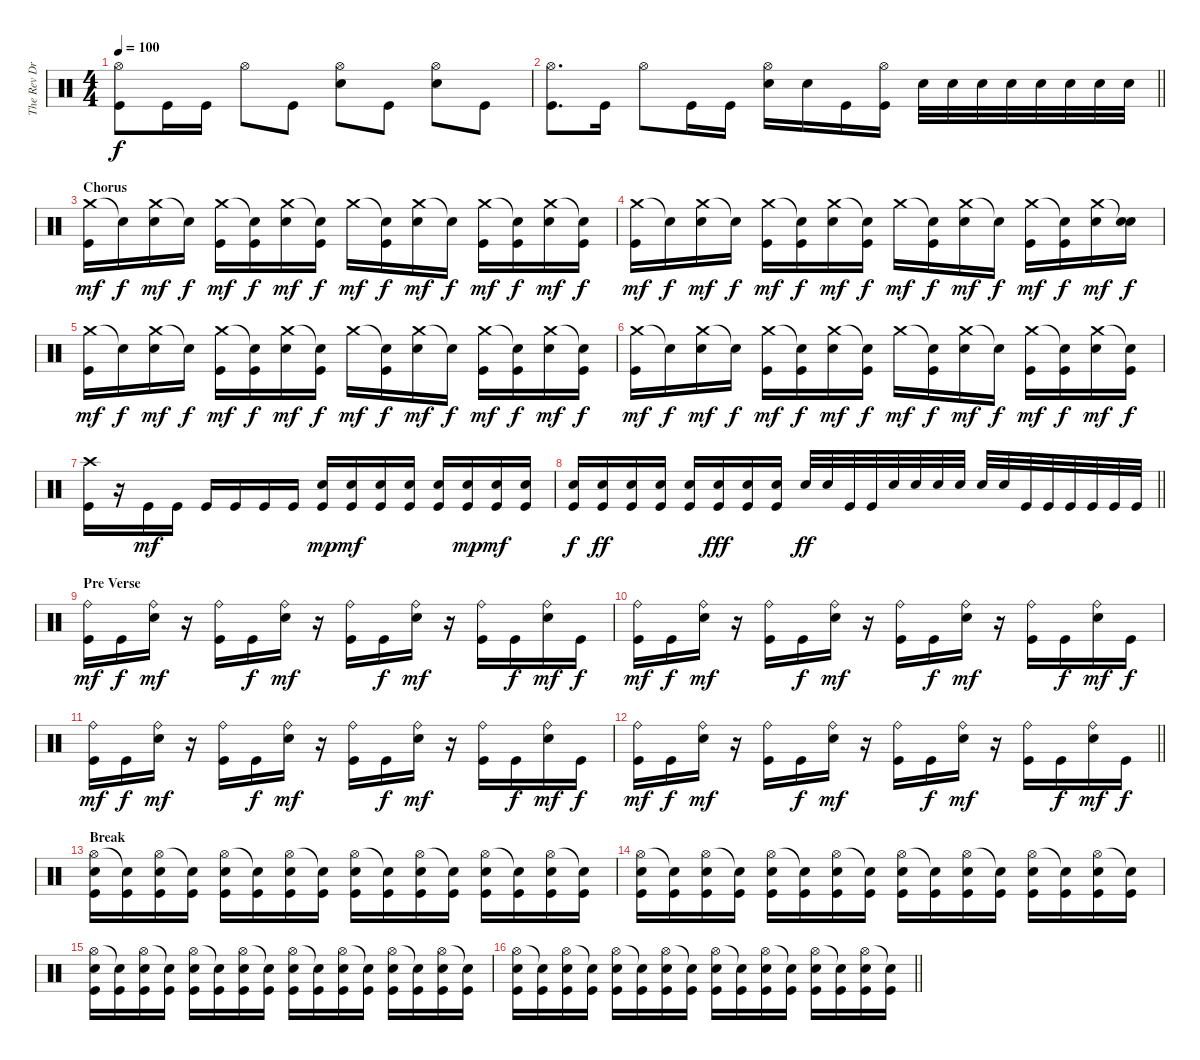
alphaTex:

\track ("The Rev Drums" "The Rev Dr") {instrument percussion}
\staff {score}
\articulation defaults
\ts (4 4)
\tempo 100
\clef neutral
\ks c
("Hi-Hat (open)" "Kick (hit)").8{dy f} "Kick (hit)".16 "Kick (hit)".16 "Hi-Hat (open)".8 "Kick (hit)".8 ("Hi-Hat (open)" "Electric Snare (hit)").8 "Kick (hit)".8 ("Hi-Hat (open)" "Electric Snare (hit)").8 "Kick (hit)".8 |
\barLineRight lightlight
("Hi-Hat (open)" "Kick (hit)").8{d} "Kick (hit)".16 "Hi-Hat (open)".8 "Kick (hit)".16 "Kick (hit)".16 ("Hi-Hat (open)" "Electric Snare (hit)").16 "Electric Snare (hit)".16 "Kick (hit)".16 ("Hi-Hat (open)" "Kick (hit)").16 "Electric Snare (hit)".32 "Electric Snare (hit)".32 "Electric Snare (hit)".32 "Electric Snare (hit)".32 "Electric Snare (hit)".32 "Electric Snare (hit)".32 "Electric Snare (hit)".32 "Electric Snare (hit)".32 |
\section ("" "Chorus")
("Crash medium (hit)" "Kick (hit)").16{dy mf} "Snare (hit)"{t}.16{dy f} ("Crash medium (hit)" "Electric Snare (hit)").16{dy mf} "Snare (hit)"{t}.16{dy f} ("Crash medium (hit)" "Kick (hit)").16{dy mf} ("Snare (hit)"{t} "Kick (hit)").16{dy f} ("Crash medium (hit)" "Electric Snare (hit)").16{dy mf} ("Snare (hit)"{t} "Kick (hit)").16{dy f} "Crash medium (hit)".16{dy mf} ("Snare (hit)"{t} "Kick (hit)").16{dy f} ("Crash medium (hit)" "Electric Snare (hit)").16{dy mf} "Snare (hit)"{t}.16{dy f} ("Crash medium (hit)" "Kick (hit)").16{dy mf} ("Snare (hit)"{t} "Kick (hit)").16{dy f} ("Crash medium (hit)" "Electric Snare (hit)").16{dy mf} ("Snare (hit)"{t} "Kick (hit)").16{dy f} |
("Crash medium (hit)" "Kick (hit)").16{dy mf} "Snare (hit)"{t}.16{dy f} ("Crash medium (hit)" "Electric Snare (hit)").16{dy mf} "Snare (hit)"{t}.16{dy f} ("Crash medium (hit)" "Kick (hit)").16{dy mf} ("Snare (hit)"{t} "Kick (hit)").16{dy f} ("Crash medium (hit)" "Electric Snare (hit)").16{dy mf} ("Snare (hit)"{t} "Kick (hit)").16{dy f} "Crash medium (hit)".16{dy mf} ("Snare (hit)"{t} "Kick (hit)").16{dy f} ("Crash medium (hit)" "Electric Snare (hit)").16{dy mf} "Snare (hit)"{t}.16{dy f} ("Crash medium (hit)" "Kick (hit)").16{dy mf} ("Snare (hit)"{t} "Kick (hit)").16{dy f} ("Crash medium (hit)" "Electric Snare (hit)").16{dy mf} ("Snare (hit)"{t} "Electric Snare (hit)").16{dy f} |
("Crash medium (hit)" "Kick (hit)").16{dy mf} "Snare (hit)"{t}.16{dy f} ("Crash medium (hit)" "Electric Snare (hit)").16{dy mf} "Snare (hit)"{t}.16{dy f} ("Crash medium (hit)" "Kick (hit)").16{dy mf} ("Snare (hit)"{t} "Kick (hit)").16{dy f} ("Crash medium (hit)" "Electric Snare (hit)").16{dy mf} ("Snare (hit)"{t} "Kick (hit)").16{dy f} "Crash medium (hit)".16{dy mf} ("Snare (hit)"{t} "Kick (hit)").16{dy f} ("Crash medium (hit)" "Electric Snare (hit)").16{dy mf} "Snare (hit)"{t}.16{dy f} ("Crash medium (hit)" "Kick (hit)").16{dy mf} ("Snare (hit)"{t} "Kick (hit)").16{dy f} ("Crash medium (hit)" "Electric Snare (hit)").16{dy mf} ("Snare (hit)"{t} "Kick (hit)").16{dy f} |
("Crash medium (hit)" "Kick (hit)").16{dy mf} "Snare (hit)"{t}.16{dy f} ("Crash medium (hit)" "Electric Snare (hit)").16{dy mf} "Snare (hit)"{t}.16{dy f} ("Crash medium (hit)" "Kick (hit)").16{dy mf} ("Snare (hit)"{t} "Kick (hit)").16{dy f} ("Crash medium (hit)" "Electric Snare (hit)").16{dy mf} ("Snare (hit)"{t} "Kick (hit)").16{dy f} "Crash medium (hit)".16{dy mf} ("Snare (hit)"{t} "Kick (hit)").16{dy f} ("Crash medium (hit)" "Electric Snare (hit)").16{dy mf} "Snare (hit)"{t}.16{dy f} ("Crash medium (hit)" "Kick (hit)").16{dy mf} ("Snare (hit)"{t} "Kick (hit)").16{dy f} ("Crash medium (hit)" "Electric Snare (hit)").16{dy mf} ("Snare (hit)"{t} "Kick (hit)").16{dy f} |
("Crash high (hit)" "Kick (hit)").16 r.16 "Kick (hit)".16{dy mf} "Kick (hit)".16 "Kick (hit)".16 "Kick (hit)".16 "Kick (hit)".16 "Kick (hit)".16 ("Electric Snare (hit)" "Kick (hit)").16{dy mp} ("Electric Snare (hit)" "Kick (hit)").16{dy mf} ("Electric Snare (hit)" "Kick (hit)").16 ("Electric Snare (hit)" "Kick (hit)").16 ("Electric Snare (hit)" "Kick (hit)").16 ("Electric Snare (hit)" "Kick (hit)").16{dy mp} ("Electric Snare (hit)" "Kick (hit)").16{dy mf} ("Electric Snare (hit)" "Kick (hit)").16 |
\barLineRight lightlight
("Electric Snare (hit)" "Kick (hit)").16{dy f} ("Electric Snare (hit)" "Kick (hit)").16{dy ff} ("Electric Snare (hit)" "Kick (hit)").16 ("Electric Snare (hit)" "Kick (hit)").16 ("Electric Snare (hit)" "Kick (hit)").16 ("Electric Snare (hit)" "Kick (hit)").16{dy fff} ("Electric Snare (hit)" "Kick (hit)").16 ("Electric Snare (hit)" "Kick (hit)").16 "Electric Snare (hit)".32{dy ff} "Electric Snare (hit)".32 "Kick (hit)".32 "Kick (hit)".32 "Electric Snare (hit)".32 "Electric Snare (hit)".32 "Electric Snare (hit)".32 "Electric Snare (hit)".32 "Electric Snare (hit)".32 "Electric Snare (hit)".32 "Kick (hit)".32 "Kick (hit)".32 "Kick (hit)".32 "Kick (hit)".32 "Kick (hit)".32 "Kick (hit)".32 |
\section ("" "Pre Verse")
("Ride (bell)" "Kick (hit)").16{dy mf} "Kick (hit)".16{dy f} ("Ride (bell)" "Electric Snare (hit)").16{dy mf} r.16 ("Ride (bell)" "Kick (hit)").16 "Kick (hit)".16{dy f} ("Ride (bell)" "Electric Snare (hit)").16{dy mf} r.16 ("Ride (bell)" "Kick (hit)").16 "Kick (hit)".16{dy f} ("Ride (bell)" "Electric Snare (hit)").16{dy mf} r.16 ("Ride (bell)" "Kick (hit)").16 "Kick (hit)".16{dy f} ("Ride (bell)" "Electric Snare (hit)").16{dy mf} "Kick (hit)".16{dy f} |
("Ride (bell)" "Kick (hit)").16{dy mf} "Kick (hit)".16{dy f} ("Ride (bell)" "Electric Snare (hit)").16{dy mf} r.16 ("Ride (bell)" "Kick (hit)").16 "Kick (hit)".16{dy f} ("Ride (bell)" "Electric Snare (hit)").16{dy mf} r.16 ("Ride (bell)" "Kick (hit)").16 "Kick (hit)".16{dy f} ("Ride (bell)" "Electric Snare (hit)").16{dy mf} r.16 ("Ride (bell)" "Kick (hit)").16 "Kick (hit)".16{dy f} ("Ride (bell)" "Electric Snare (hit)").16{dy mf} "Kick (hit)".16{dy f} |
("Ride (bell)" "Kick (hit)").16{dy mf} "Kick (hit)".16{dy f} ("Ride (bell)" "Electric Snare (hit)").16{dy mf} r.16 ("Ride (bell)" "Kick (hit)").16 "Kick (hit)".16{dy f} ("Ride (bell)" "Electric Snare (hit)").16{dy mf} r.16 ("Ride (bell)" "Kick (hit)").16 "Kick (hit)".16{dy f} ("Ride (bell)" "Electric Snare (hit)").16{dy mf} r.16 ("Ride (bell)" "Kick (hit)").16 "Kick (hit)".16{dy f} ("Ride (bell)" "Electric Snare (hit)").16{dy mf} "Kick (hit)".16{dy f} |
\barLineRight lightlight
("Ride (bell)" "Kick (hit)").16{dy mf} "Kick (hit)".16{dy f} ("Ride (bell)" "Electric Snare (hit)").16{dy mf} r.16 ("Ride (bell)" "Kick (hit)").16 "Kick (hit)".16{dy f} ("Ride (bell)" "Electric Snare (hit)").16{dy mf} r.16 ("Ride (bell)" "Kick (hit)").16 "Kick (hit)".16{dy f} ("Ride (bell)" "Electric Snare (hit)").16{dy mf} r.16 ("Ride (bell)" "Kick (hit)").16 "Kick (hit)".16{dy f} ("Ride (bell)" "Electric Snare (hit)").16{dy mf} "Kick (hit)".16{dy f} |
\section ("" "Break")
("Hi-Hat (open)" "Electric Snare (hit)" "Kick (hit)").16 ("Snare (hit)"{t} "Kick (hit)").16 ("Hi-Hat (open)" "Electric Snare (hit)" "Kick (hit)").16 ("Snare (hit)"{t} "Kick (hit)").16 ("Hi-Hat (open)" "Electric Snare (hit)" "Kick (hit)").16 ("Snare (hit)"{t} "Kick (hit)").16 ("Hi-Hat (open)" "Electric Snare (hit)" "Kick (hit)").16 ("Snare (hit)"{t} "Kick (hit)").16 ("Hi-Hat (open)" "Electric Snare (hit)" "Kick (hit)").16 ("Snare (hit)"{t} "Kick (hit)").16 ("Hi-Hat (open)" "Electric Snare (hit)" "Kick (hit)").16 ("Snare (hit)"{t} "Kick (hit)").16 ("Hi-Hat (open)" "Electric Snare (hit)" "Kick (hit)").16 ("Snare (hit)"{t} "Kick (hit)").16 ("Hi-Hat (open)" "Electric Snare (hit)" "Kick (hit)").16 ("Snare (hit)"{t} "Kick (hit)").16 |
("Hi-Hat (open)" "Electric Snare (hit)" "Kick (hit)").16 ("Snare (hit)"{t} "Kick (hit)").16 ("Hi-Hat (open)" "Electric Snare (hit)" "Kick (hit)").16 ("Snare (hit)"{t} "Kick (hit)").16 ("Hi-Hat (open)" "Electric Snare (hit)" "Kick (hit)").16 ("Snare (hit)"{t} "Kick (hit)").16 ("Hi-Hat (open)" "Electric Snare (hit)" "Kick (hit)").16 ("Snare (hit)"{t} "Kick (hit)").16 ("Hi-Hat (open)" "Electric Snare (hit)" "Kick (hit)").16 ("Snare (hit)"{t} "Kick (hit)").16 ("Hi-Hat (open)" "Electric Snare (hit)" "Kick (hit)").16 ("Snare (hit)"{t} "Kick (hit)").16 ("Hi-Hat (open)" "Electric Snare (hit)" "Kick (hit)").16 ("Snare (hit)"{t} "Kick (hit)").16 ("Hi-Hat (open)" "Electric Snare (hit)" "Kick (hit)").16 ("Snare (hit)"{t} "Kick (hit)").16 |
("Hi-Hat (open)" "Electric Snare (hit)" "Kick (hit)").16 ("Snare (hit)"{t} "Kick (hit)").16 ("Hi-Hat (open)" "Electric Snare (hit)" "Kick (hit)").16 ("Snare (hit)"{t} "Kick (hit)").16 ("Hi-Hat (open)" "Electric Snare (hit)" "Kick (hit)").16 ("Snare (hit)"{t} "Kick (hit)").16 ("Hi-Hat (open)" "Electric Snare (hit)" "Kick (hit)").16 ("Snare (hit)"{t} "Kick (hit)").16 ("Hi-Hat (open)" "Electric Snare (hit)" "Kick (hit)").16 ("Snare (hit)"{t} "Kick (hit)").16 ("Hi-Hat (open)" "Electric Snare (hit)" "Kick (hit)").16 ("Snare (hit)"{t} "Kick (hit)").16 ("Hi-Hat (open)" "Electric Snare (hit)" "Kick (hit)").16 ("Snare (hit)"{t} "Kick (hit)").16 ("Hi-Hat (open)" "Electric Snare (hit)" "Kick (hit)").16 ("Snare (hit)"{t} "Kick (hit)").16 |
\barLineRight lightlight
("Hi-Hat (open)" "Electric Snare (hit)" "Kick (hit)").16 ("Snare (hit)"{t} "Kick (hit)").16 ("Hi-Hat (open)" "Electric Snare (hit)" "Kick (hit)").16 ("Snare (hit)"{t} "Kick (hit)").16 ("Hi-Hat (open)" "Electric Snare (hit)" "Kick (hit)").16 ("Snare (hit)"{t} "Kick (hit)").16 ("Hi-Hat (open)" "Electric Snare (hit)" "Kick (hit)").16 ("Snare (hit)"{t} "Kick (hit)").16 ("Hi-Hat (open)" "Electric Snare (hit)" "Kick (hit)").16 ("Snare (hit)"{t} "Kick (hit)").16 ("Hi-Hat (open)" "Electric Snare (hit)" "Kick (hit)").16 ("Snare (hit)"{t} "Kick (hit)").16 ("Hi-Hat (open)" "Electric Snare (hit)" "Kick (hit)").16 ("Snare (hit)"{t} "Kick (hit)").16 ("Hi-Hat (open)" "Electric Snare (hit)" "Kick (hit)").16 ("Snare (hit)"{t} "Kick (hit)").16
